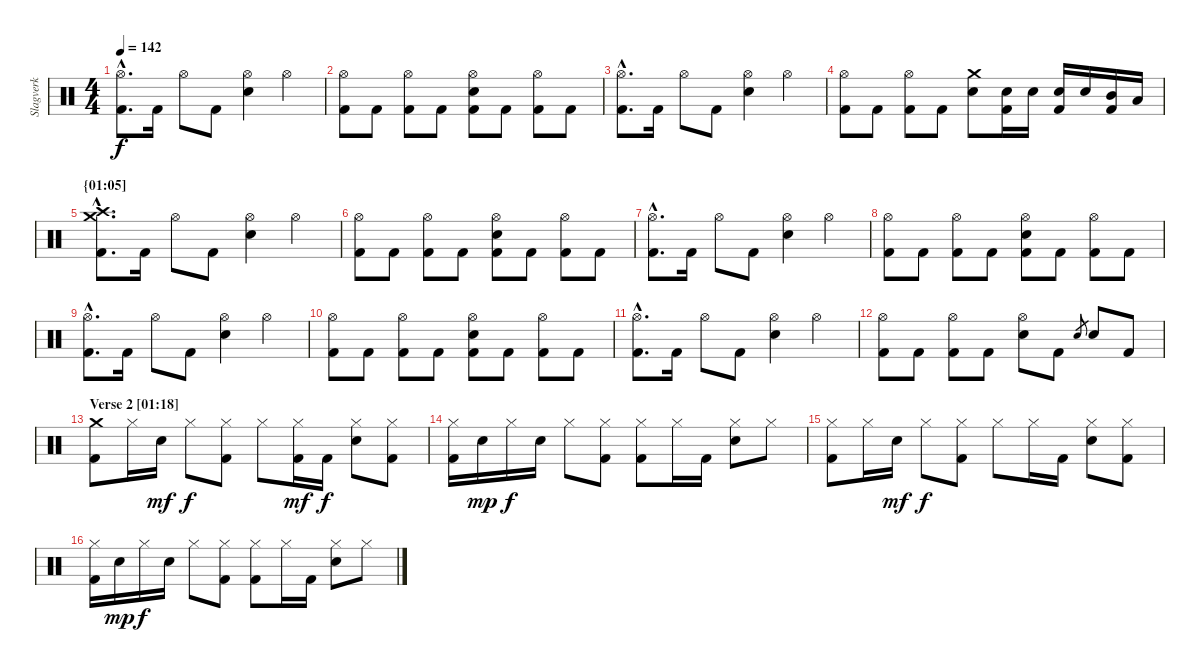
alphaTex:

\track ("Slagverk" "Slagverk") {instrument percussion}
\staff {score}
\articulation defaults
\ts (4 4)
\tempo 142
\clef neutral
\ks c
("Hi-Hat (open)"{hac} "Kick (hit) 2"{hac}).8{d dy f} "Kick (hit) 2".16 "Hi-Hat (open)".8 "Kick (hit) 2".8 ("Hi-Hat (open)" "Electric Snare (hit)").4 "Hi-Hat (open)".4 |
("Hi-Hat (open)" "Kick (hit) 2").8 "Kick (hit) 2".8 ("Hi-Hat (open)" "Kick (hit) 2").8 "Kick (hit) 2".8 ("Hi-Hat (open)" "Electric Snare (hit)" "Kick (hit) 2").8 "Kick (hit) 2".8 ("Hi-Hat (open)" "Kick (hit) 2").8 "Kick (hit) 2".8 |
("Hi-Hat (open)"{hac} "Kick (hit) 2"{hac}).8{d} "Kick (hit) 2".16 "Hi-Hat (open)".8 "Kick (hit) 2".8 ("Hi-Hat (open)" "Electric Snare (hit)").4 "Hi-Hat (open)".4 |
("Hi-Hat (open)" "Kick (hit) 2").8 "Kick (hit) 2".8 ("Hi-Hat (open)" "Kick (hit) 2").8 "Kick (hit) 2".8 ("Crash medium (hit)" "Electric Snare (hit)").8 ("Electric Snare (hit)" "Kick (hit) 2").16 "Electric Snare (hit)".16 ("Electric Snare (hit)" "Kick (hit) 2").16 "Electric Snare (hit)".16 ("Mid Tom (hit)" "Kick (hit) 2").16 "Low Tom (hit)".16 |
\section ("" "{01:05]")
("Crash medium (hit)"{hac} "Crash high (hit)"{hac} "Kick (hit) 2"{hac}).8{d} "Kick (hit) 2".16 "Hi-Hat (open)".8 "Kick (hit) 2".8 ("Hi-Hat (open)" "Electric Snare (hit)").4 "Hi-Hat (open)".4 |
("Hi-Hat (open)" "Kick (hit) 2").8 "Kick (hit) 2".8 ("Hi-Hat (open)" "Kick (hit) 2").8 "Kick (hit) 2".8 ("Hi-Hat (open)" "Electric Snare (hit)" "Kick (hit) 2").8 "Kick (hit) 2".8 ("Hi-Hat (open)" "Kick (hit) 2").8 "Kick (hit) 2".8 |
("Hi-Hat (open)"{hac} "Kick (hit) 2"{hac}).8{d} "Kick (hit) 2".16 "Hi-Hat (open)".8 "Kick (hit) 2".8 ("Hi-Hat (open)" "Electric Snare (hit)").4 "Hi-Hat (open)".4 |
("Hi-Hat (open)" "Kick (hit) 2").8 "Kick (hit) 2".8 ("Hi-Hat (open)" "Kick (hit) 2").8 "Kick (hit) 2".8 ("Hi-Hat (open)" "Electric Snare (hit)" "Kick (hit) 2").8 "Kick (hit) 2".8 ("Hi-Hat (open)" "Kick (hit) 2").8 "Kick (hit) 2".8 |
("Hi-Hat (open)"{hac} "Kick (hit) 2"{hac}).8{d} "Kick (hit) 2".16 "Hi-Hat (open)".8 "Kick (hit) 2".8 ("Hi-Hat (open)" "Electric Snare (hit)").4 "Hi-Hat (open)".4 |
("Hi-Hat (open)" "Kick (hit) 2").8 "Kick (hit) 2".8 ("Hi-Hat (open)" "Kick (hit) 2").8 "Kick (hit) 2".8 ("Hi-Hat (open)" "Electric Snare (hit)" "Kick (hit) 2").8 "Kick (hit) 2".8 ("Hi-Hat (open)" "Kick (hit) 2").8 "Kick (hit) 2".8 |
("Hi-Hat (open)"{hac} "Kick (hit) 2"{hac}).8{d} "Kick (hit) 2".16 "Hi-Hat (open)".8 "Kick (hit) 2".8 ("Hi-Hat (open)" "Electric Snare (hit)").4 "Hi-Hat (open)".4 |
("Hi-Hat (open)" "Kick (hit) 2").8 "Kick (hit) 2".8 ("Hi-Hat (open)" "Kick (hit) 2").8 "Kick (hit) 2".8 ("Hi-Hat (open)" "Electric Snare (hit)").8 "Kick (hit) 2".8 "Electric Snare (hit)".8{gr} "Electric Snare (hit)".8 "Kick (hit) 2".8 |
\section ("" "Verse 2 [01:18]")
("Crash medium (hit)" "Kick (hit) 2").8 "Hi-Hat (closed)".16 "Electric Snare (hit)".16{dy mf} "Hi-Hat (closed)".8{dy f} ("Hi-Hat (closed)" "Kick (hit) 2").8 "Hi-Hat (closed)".8 ("Hi-Hat (closed)" "Kick (hit) 2").16{dy mf} "Kick (hit) 2".16{dy f} ("Hi-Hat (closed)" "Electric Snare (hit)").8 ("Hi-Hat (closed)" "Kick (hit) 2").8 |
("Hi-Hat (closed)" "Kick (hit) 2").16 "Electric Snare (hit)".16{dy mp} "Hi-Hat (closed)".16{dy f} "Electric Snare (hit)".16 "Hi-Hat (closed)".8 ("Hi-Hat (closed)" "Kick (hit) 2").8 ("Hi-Hat (closed)" "Kick (hit) 2").8 "Hi-Hat (closed)".16 "Kick (hit) 2".16 ("Hi-Hat (closed)" "Electric Snare (hit)").8 "Hi-Hat (closed)".8 |
("Hi-Hat (closed)" "Kick (hit) 2").8 "Hi-Hat (closed)".16 "Electric Snare (hit)".16{dy mf} "Hi-Hat (closed)".8{dy f} ("Hi-Hat (closed)" "Kick (hit) 2").8 "Hi-Hat (closed)".8 "Hi-Hat (closed)".16 "Kick (hit) 2".16 ("Hi-Hat (closed)" "Electric Snare (hit)").8 ("Hi-Hat (closed)" "Kick (hit) 2").8 |
("Hi-Hat (closed)" "Kick (hit) 2").16 "Electric Snare (hit)".16{dy mp} "Hi-Hat (closed)".16{dy f} "Electric Snare (hit)".16 "Hi-Hat (closed)".8 ("Hi-Hat (closed)" "Kick (hit) 2").8 ("Hi-Hat (closed)" "Kick (hit) 2").8 "Hi-Hat (closed)".16 "Kick (hit) 2".16 ("Hi-Hat (closed)" "Electric Snare (hit)").8 "Hi-Hat (closed)".8
